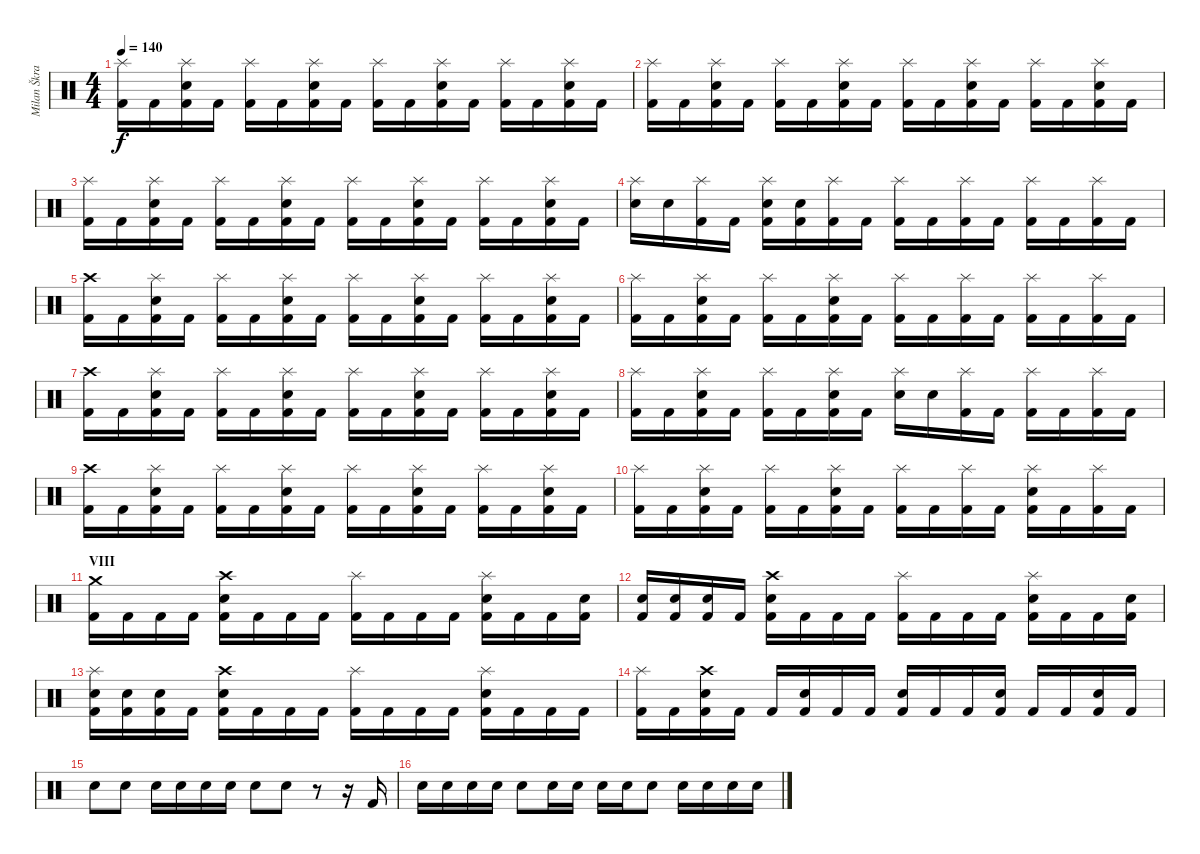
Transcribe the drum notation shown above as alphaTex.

\track ("Milan Škrabal" "Milan Škra") {instrument percussion}
\staff {score}
\articulation defaults
\ts (4 4)
\tempo 140
\clef neutral
\ks c
("Splash (hit)" "Kick (hit) 2").16{dy f} "Kick (hit) 2".16 ("Splash (hit)" "Electric Snare (hit)" "Kick (hit) 2").16 "Kick (hit) 2".16 ("Splash (hit)" "Kick (hit) 2").16 "Kick (hit) 2".16 ("Splash (hit)" "Electric Snare (hit)" "Kick (hit) 2").16 "Kick (hit) 2".16 ("Splash (hit)" "Kick (hit) 2").16 "Kick (hit) 2".16 ("Splash (hit)" "Electric Snare (hit)" "Kick (hit) 2").16 "Kick (hit) 2".16 ("Splash (hit)" "Kick (hit) 2").16 "Kick (hit) 2".16 ("Splash (hit)" "Electric Snare (hit)" "Kick (hit) 2").16 "Kick (hit) 2".16 |
("Splash (hit)" "Kick (hit) 2").16 "Kick (hit) 2".16 ("Splash (hit)" "Electric Snare (hit)" "Kick (hit) 2").16 "Kick (hit) 2".16 ("Splash (hit)" "Kick (hit) 2").16 "Kick (hit) 2".16 ("Splash (hit)" "Electric Snare (hit)" "Kick (hit) 2").16 "Kick (hit) 2".16 ("Splash (hit)" "Kick (hit) 2").16 "Kick (hit) 2".16 ("Splash (hit)" "Electric Snare (hit)" "Kick (hit) 2").16 "Kick (hit) 2".16 ("Splash (hit)" "Kick (hit) 2").16 "Kick (hit) 2".16 ("Splash (hit)" "Electric Snare (hit)" "Kick (hit) 2").16 "Kick (hit) 2".16 |
("Splash (hit)" "Kick (hit) 2").16 "Kick (hit) 2".16 ("Splash (hit)" "Electric Snare (hit)" "Kick (hit) 2").16 "Kick (hit) 2".16 ("Splash (hit)" "Kick (hit) 2").16 "Kick (hit) 2".16 ("Splash (hit)" "Electric Snare (hit)" "Kick (hit) 2").16 "Kick (hit) 2".16 ("Splash (hit)" "Kick (hit) 2").16 "Kick (hit) 2".16 ("Splash (hit)" "Electric Snare (hit)" "Kick (hit) 2").16 "Kick (hit) 2".16 ("Splash (hit)" "Kick (hit) 2").16 "Kick (hit) 2".16 ("Splash (hit)" "Electric Snare (hit)" "Kick (hit) 2").16 "Kick (hit) 2".16 |
("Splash (hit)" "Electric Snare (hit)").16 "Electric Snare (hit)".16 ("Splash (hit)" "Kick (hit) 2").16 "Kick (hit) 2".16 ("Splash (hit)" "Electric Snare (hit)" "Kick (hit) 2").16 ("Electric Snare (hit)" "Kick (hit) 2").16 ("Splash (hit)" "Kick (hit) 2").16 "Kick (hit) 2".16 ("Splash (hit)" "Kick (hit) 2").16 "Kick (hit) 2".16 ("Splash (hit)" "Kick (hit) 2").16 "Kick (hit) 2".16 ("Splash (hit)" "Kick (hit) 2").16 "Kick (hit) 2".16 ("Splash (hit)" "Kick (hit) 2").16 "Kick (hit) 2".16 |
("Crash high (hit)" "Kick (hit) 2").16 "Kick (hit) 2".16 ("Splash (hit)" "Electric Snare (hit)" "Kick (hit) 2").16 "Kick (hit) 2".16 ("Splash (hit)" "Kick (hit) 2").16 "Kick (hit) 2".16 ("Splash (hit)" "Electric Snare (hit)" "Kick (hit) 2").16 "Kick (hit) 2".16 ("Splash (hit)" "Kick (hit) 2").16 "Kick (hit) 2".16 ("Splash (hit)" "Electric Snare (hit)" "Kick (hit) 2").16 "Kick (hit) 2".16 ("Splash (hit)" "Kick (hit) 2").16 "Kick (hit) 2".16 ("Splash (hit)" "Electric Snare (hit)" "Kick (hit) 2").16 "Kick (hit) 2".16 |
("Splash (hit)" "Kick (hit) 2").16 "Kick (hit) 2".16 ("Splash (hit)" "Electric Snare (hit)" "Kick (hit) 2").16 "Kick (hit) 2".16 ("Splash (hit)" "Kick (hit) 2").16 "Kick (hit) 2".16 ("Splash (hit)" "Electric Snare (hit)" "Kick (hit) 2").16 "Kick (hit) 2".16 ("Splash (hit)" "Kick (hit) 2").16 "Kick (hit) 2".16 ("Splash (hit)" "Kick (hit) 2").16 "Kick (hit) 2".16 ("Splash (hit)" "Kick (hit) 2").16 "Kick (hit) 2".16 ("Splash (hit)" "Kick (hit) 2").16 "Kick (hit) 2".16 |
("Crash high (hit)" "Kick (hit) 2").16 "Kick (hit) 2".16 ("Splash (hit)" "Electric Snare (hit)" "Kick (hit) 2").16 "Kick (hit) 2".16 ("Splash (hit)" "Kick (hit) 2").16 "Kick (hit) 2".16 ("Splash (hit)" "Electric Snare (hit)" "Kick (hit) 2").16 "Kick (hit) 2".16 ("Splash (hit)" "Kick (hit) 2").16 "Kick (hit) 2".16 ("Splash (hit)" "Electric Snare (hit)" "Kick (hit) 2").16 "Kick (hit) 2".16 ("Splash (hit)" "Kick (hit) 2").16 "Kick (hit) 2".16 ("Splash (hit)" "Electric Snare (hit)" "Kick (hit) 2").16 "Kick (hit) 2".16 |
("Splash (hit)" "Kick (hit) 2").16 "Kick (hit) 2".16 ("Splash (hit)" "Electric Snare (hit)" "Kick (hit) 2").16 "Kick (hit) 2".16 ("Splash (hit)" "Kick (hit) 2").16 "Kick (hit) 2".16 ("Splash (hit)" "Electric Snare (hit)" "Kick (hit) 2").16 "Kick (hit) 2".16 ("Splash (hit)" "Electric Snare (hit)").16 "Electric Snare (hit)".16 ("Splash (hit)" "Kick (hit) 2").16 "Kick (hit) 2".16 ("Splash (hit)" "Kick (hit) 2").16 "Kick (hit) 2".16 ("Splash (hit)" "Kick (hit) 2").16 "Kick (hit) 2".16 |
("Crash high (hit)" "Kick (hit) 2").16 "Kick (hit) 2".16 ("Splash (hit)" "Electric Snare (hit)" "Kick (hit) 2").16 "Kick (hit) 2".16 ("Splash (hit)" "Kick (hit) 2").16 "Kick (hit) 2".16 ("Splash (hit)" "Electric Snare (hit)" "Kick (hit) 2").16 "Kick (hit) 2".16 ("Splash (hit)" "Kick (hit) 2").16 "Kick (hit) 2".16 ("Splash (hit)" "Electric Snare (hit)" "Kick (hit) 2").16 "Kick (hit) 2".16 ("Splash (hit)" "Kick (hit) 2").16 "Kick (hit) 2".16 ("Splash (hit)" "Electric Snare (hit)" "Kick (hit) 2").16 "Kick (hit) 2".16 |
("Splash (hit)" "Kick (hit) 2").16 "Kick (hit) 2".16 ("Splash (hit)" "Electric Snare (hit)" "Kick (hit) 2").16 "Kick (hit) 2".16 ("Splash (hit)" "Kick (hit) 2").16 "Kick (hit) 2".16 ("Splash (hit)" "Electric Snare (hit)" "Kick (hit) 2").16 "Kick (hit) 2".16 ("Splash (hit)" "Kick (hit) 2").16 "Kick (hit) 2".16 ("Splash (hit)" "Kick (hit) 2").16 "Kick (hit) 2".16 ("Splash (hit)" "Electric Snare (hit)" "Kick (hit) 2").16 "Kick (hit) 2".16 ("Splash (hit)" "Kick (hit) 2").16 "Kick (hit) 2".16 |
\section ("" "VIII")
("Crash medium (hit)" "Kick (hit) 2").16 "Kick (hit) 2".16 "Kick (hit) 2".16 "Kick (hit) 2".16 ("Crash high (hit)" "Electric Snare (hit)" "Kick (hit) 2").16 "Kick (hit) 2".16 "Kick (hit) 2".16 "Kick (hit) 2".16 ("Splash (hit)" "Kick (hit) 2").16 "Kick (hit) 2".16 "Kick (hit) 2".16 "Kick (hit) 2".16 ("Splash (hit)" "Electric Snare (hit)" "Kick (hit) 2").16 "Kick (hit) 2".16 "Kick (hit) 2".16 ("Electric Snare (hit)" "Kick (hit) 2").16 |
("Electric Snare (hit)" "Kick (hit) 2").16 ("Electric Snare (hit)" "Kick (hit) 2").16 ("Electric Snare (hit)" "Kick (hit) 2").16 "Kick (hit) 2".16 ("Crash high (hit)" "Electric Snare (hit)" "Kick (hit) 2").16 "Kick (hit) 2".16 "Kick (hit) 2".16 "Kick (hit) 2".16 ("Splash (hit)" "Kick (hit) 2").16 "Kick (hit) 2".16 "Kick (hit) 2".16 "Kick (hit) 2".16 ("Splash (hit)" "Electric Snare (hit)" "Kick (hit) 2").16 "Kick (hit) 2".16 "Kick (hit) 2".16 ("Electric Snare (hit)" "Kick (hit) 2").16 |
("Splash (hit)" "Electric Snare (hit)" "Kick (hit) 2").16 ("Electric Snare (hit)" "Kick (hit) 2").16 ("Electric Snare (hit)" "Kick (hit) 2").16 "Kick (hit) 2".16 ("Crash high (hit)" "Electric Snare (hit)" "Kick (hit) 2").16 "Kick (hit) 2".16 "Kick (hit) 2".16 "Kick (hit) 2".16 ("Splash (hit)" "Kick (hit) 2").16 "Kick (hit) 2".16 "Kick (hit) 2".16 "Kick (hit) 2".16 ("Splash (hit)" "Electric Snare (hit)" "Kick (hit) 2").16 "Kick (hit) 2".16 "Kick (hit) 2".16 "Kick (hit) 2".16 |
("Splash (hit)" "Kick (hit) 2").16 "Kick (hit) 2".16 ("Crash high (hit)" "Electric Snare (hit)" "Kick (hit) 2").16 "Kick (hit) 2".16 "Kick (hit) 2".16 ("Electric Snare (hit)" "Kick (hit) 2").16 "Kick (hit) 2".16 "Kick (hit) 2".16 ("Electric Snare (hit)" "Kick (hit) 2").16 "Kick (hit) 2".16 "Kick (hit) 2".16 ("Electric Snare (hit)" "Kick (hit) 2").16 "Kick (hit) 2".16 "Kick (hit) 2".16 ("Electric Snare (hit)" "Kick (hit) 2").16 "Kick (hit) 2".16 |
"Electric Snare (hit)".8 "Electric Snare (hit)".8 "Electric Snare (hit)".16 "Electric Snare (hit)".16 "Electric Snare (hit)".16 "Electric Snare (hit)".16 "Electric Snare (hit)".8 "Electric Snare (hit)".8 r.8 r.16 "Kick (hit) 2".16 |
"Electric Snare (hit)".16 "Electric Snare (hit)".16 "Electric Snare (hit)".16 "Electric Snare (hit)".16 "Electric Snare (hit)".8 "Electric Snare (hit)".16 "Electric Snare (hit)".16 "Electric Snare (hit)".16 "Electric Snare (hit)".16 "Electric Snare (hit)".8 "Electric Snare (hit)".16 "Electric Snare (hit)".16 "Electric Snare (hit)".16 "Electric Snare (hit)".16
